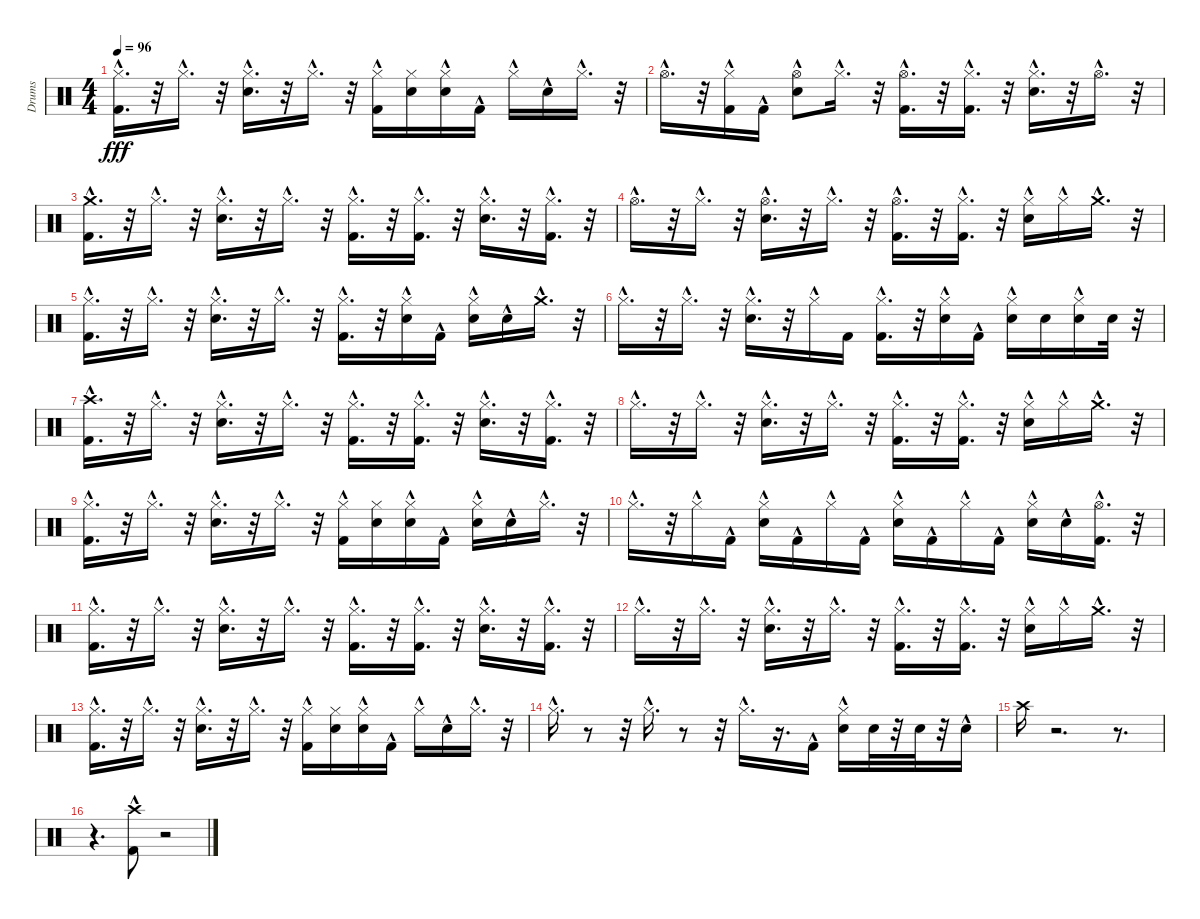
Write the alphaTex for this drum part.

\track ("Drums" "Drums") {instrument percussion}
\staff {score}
\articulation defaults
\ts (4 4)
\tempo 96
\clef neutral
\ks c
("Hi-Hat (closed)"{hac} "Kick (hit) 2"{hac}).16{d dy fff} r.32 "Hi-Hat (closed)"{hac}.16{d} r.32 ("Hi-Hat (closed)"{hac} "Snare (hit) 2"{hac}).16{d} r.32 "Hi-Hat (closed)"{hac}.16{d} r.32 ("Hi-Hat (closed)" "Kick (hit) 2"{hac}).16 ("Snare (hit) 2" "Hi-Hat (closed)").16 ("Hi-Hat (closed)"{hac} "Snare (hit) 2"{hac}).16 "Kick (hit) 2"{hac}.16 "Hi-Hat (closed)"{hac}.16 "Snare (hit) 2"{hac}.16 "Hi-Hat (closed)"{hac}.16{d} r.32 |
"Hi-Hat (open)"{hac}.16{d} r.32 ("Hi-Hat (closed)"{hac} "Kick (hit) 2").16 "Kick (hit) 2"{hac}.16 ("Snare (hit) 2"{hac} "Hi-Hat (open)"{hac}).8 "Hi-Hat (closed)"{hac}.16{d} r.32 ("Kick (hit) 2"{hac} "Hi-Hat (open)"{hac}).16{d} r.32 ("Hi-Hat (closed)"{hac} "Kick (hit) 2"{hac}).16{d} r.32 ("Hi-Hat (closed)"{hac} "Snare (hit) 2"{hac}).16{d} r.32 "Hi-Hat (open)"{hac}.16{d} r.32 |
("Kick (hit) 2"{hac} "Crash medium (hit)"{hac}).16{d} r.32 "Hi-Hat (closed)"{hac}.16{d} r.32 ("Hi-Hat (closed)"{hac} "Snare (hit) 2"{hac}).16{d} r.32 "Hi-Hat (closed)"{hac}.16{d} r.32 ("Hi-Hat (closed)"{hac} "Kick (hit) 2"{hac}).16{d} r.32 ("Hi-Hat (closed)"{hac} "Kick (hit) 2"{hac}).16{d} r.32 ("Hi-Hat (closed)"{hac} "Snare (hit) 2"{hac}).16{d} r.32 ("Hi-Hat (closed)"{hac} "Kick (hit) 2"{hac}).16{d} r.32 |
"Hi-Hat (open)"{hac}.16{d} r.32 "Hi-Hat (closed)"{hac}.16{d} r.32 ("Snare (hit) 2"{hac} "Hi-Hat (open)"{hac}).16{d} r.32 "Hi-Hat (closed)"{hac}.16{d} r.32 ("Kick (hit) 2"{hac} "Hi-Hat (open)"{hac}).16{d} r.32 ("Hi-Hat (closed)"{hac} "Kick (hit) 2"{hac}).16{d} r.32 ("Hi-Hat (closed)" "Snare (hit) 2"{hac}).16 "Hi-Hat (closed)"{hac}.16 "Crash medium (hit)"{hac}.16{d} r.32 |
("Hi-Hat (closed)"{hac} "Kick (hit) 2"{hac}).16{d} r.32 "Hi-Hat (closed)"{hac}.16{d} r.32 ("Hi-Hat (closed)"{hac} "Snare (hit) 2"{hac}).16{d} r.32 "Hi-Hat (closed)"{hac}.16{d} r.32 ("Hi-Hat (closed)"{hac} "Kick (hit) 2"{hac}).16{d} r.32 ("Hi-Hat (closed)"{hac} "Snare (hit) 2"{hac}).16 "Kick (hit) 2"{hac}.16 ("Hi-Hat (closed)"{hac} "Snare (hit) 2").16 "Snare (hit) 2"{hac}.16 "Crash medium (hit)"{hac}.16{d} r.32 |
"Hi-Hat (closed)"{hac}.16{d} r.32 "Hi-Hat (closed)"{hac}.16{d} r.32 ("Hi-Hat (closed)"{hac} "Snare (hit) 2"{hac}).16{d} r.32 "Hi-Hat (closed)"{hac}.16 "Kick (hit) 2".16 ("Hi-Hat (closed)"{hac} "Kick (hit) 2"{hac}).16{d} r.32 ("Hi-Hat (closed)"{hac} "Snare (hit) 2"{hac}).16 "Kick (hit) 2"{hac}.16 ("Hi-Hat (closed)"{hac} "Snare (hit) 2").16 "Snare (hit) 2".16 ("Hi-Hat (closed)"{hac} "Snare (hit) 2").16 "Snare (hit) 2".32 r.32 |
("Kick (hit) 2"{hac} "Crash high (hit)"{hac}).16{d} r.32 "Hi-Hat (closed)"{hac}.16{d} r.32 ("Hi-Hat (closed)"{hac} "Snare (hit) 2"{hac}).16{d} r.32 "Hi-Hat (closed)"{hac}.16{d} r.32 ("Hi-Hat (closed)"{hac} "Kick (hit) 2"{hac}).16{d} r.32 ("Hi-Hat (closed)"{hac} "Kick (hit) 2"{hac}).16{d} r.32 ("Hi-Hat (closed)"{hac} "Snare (hit) 2"{hac}).16{d} r.32 ("Hi-Hat (closed)"{hac} "Kick (hit) 2"{hac}).16{d} r.32 |
"Hi-Hat (closed)"{hac}.16{d} r.32 "Hi-Hat (closed)"{hac}.16{d} r.32 ("Hi-Hat (closed)"{hac} "Snare (hit) 2"{hac}).16{d} r.32 "Hi-Hat (closed)"{hac}.16{d} r.32 ("Hi-Hat (closed)"{hac} "Kick (hit) 2"{hac}).16{d} r.32 ("Hi-Hat (closed)"{hac} "Kick (hit) 2"{hac}).16{d} r.32 ("Hi-Hat (closed)" "Snare (hit) 2"{hac}).16 "Hi-Hat (closed)"{hac}.16 "Crash medium (hit)"{hac}.16{d} r.32 |
("Hi-Hat (closed)"{hac} "Kick (hit) 2"{hac}).16{d} r.32 "Hi-Hat (closed)"{hac}.16{d} r.32 ("Hi-Hat (closed)"{hac} "Snare (hit) 2"{hac}).16{d} r.32 "Hi-Hat (closed)"{hac}.16{d} r.32 ("Hi-Hat (closed)" "Kick (hit) 2"{hac}).16 ("Snare (hit) 2" "Hi-Hat (closed)").16 ("Hi-Hat (closed)"{hac} "Snare (hit) 2"{hac}).16 "Kick (hit) 2"{hac}.16 ("Hi-Hat (closed)"{hac} "Snare (hit) 2").16 "Snare (hit) 2"{hac}.16 "Hi-Hat (closed)"{hac}.16{d} r.32 |
"Hi-Hat (closed)"{hac}.16{d} r.32 "Hi-Hat (closed)"{hac}.16 "Kick (hit) 2"{hac}.16 ("Hi-Hat (closed)" "Snare (hit) 2"{hac}).16 "Kick (hit) 2"{hac}.16 "Hi-Hat (closed)"{hac}.16 "Kick (hit) 2"{hac}.16 ("Hi-Hat (closed)"{hac} "Snare (hit) 2"{hac}).16 "Kick (hit) 2"{hac}.16 "Hi-Hat (closed)"{hac}.16 "Kick (hit) 2"{hac}.16 ("Hi-Hat (closed)"{hac} "Snare (hit) 2").16 "Snare (hit) 2"{hac}.16 ("Hi-Hat (open)"{hac} "Kick (hit) 2"{hac}).16{d} r.32 |
("Hi-Hat (closed)"{hac} "Kick (hit) 2"{hac}).16{d} r.32 "Hi-Hat (closed)"{hac}.16{d} r.32 ("Hi-Hat (closed)"{hac} "Snare (hit) 2"{hac}).16{d} r.32 "Hi-Hat (closed)"{hac}.16{d} r.32 ("Hi-Hat (closed)"{hac} "Kick (hit) 2"{hac}).16{d} r.32 ("Hi-Hat (closed)"{hac} "Kick (hit) 2"{hac}).16{d} r.32 ("Hi-Hat (closed)"{hac} "Snare (hit) 2"{hac}).16{d} r.32 ("Hi-Hat (closed)"{hac} "Kick (hit) 2"{hac}).16{d} r.32 |
"Hi-Hat (closed)"{hac}.16{d} r.32 "Hi-Hat (closed)"{hac}.16{d} r.32 ("Hi-Hat (closed)"{hac} "Snare (hit) 2"{hac}).16{d} r.32 "Hi-Hat (closed)"{hac}.16{d} r.32 ("Hi-Hat (closed)"{hac} "Kick (hit) 2"{hac}).16{d} r.32 ("Hi-Hat (closed)"{hac} "Kick (hit) 2"{hac}).16{d} r.32 ("Hi-Hat (closed)" "Snare (hit) 2"{hac}).16 "Hi-Hat (closed)"{hac}.16 "Crash medium (hit)"{hac}.16{d} r.32 |
("Hi-Hat (closed)"{hac} "Kick (hit) 2"{hac}).16{d} r.32 "Hi-Hat (closed)"{hac}.16{d} r.32 ("Hi-Hat (closed)"{hac} "Snare (hit) 2"{hac}).16{d} r.32 "Hi-Hat (closed)"{hac}.16{d} r.32 ("Hi-Hat (closed)" "Kick (hit) 2"{hac}).16 ("Snare (hit) 2" "Hi-Hat (closed)").16 ("Hi-Hat (closed)"{hac} "Snare (hit) 2"{hac}).16 "Kick (hit) 2"{hac}.16 "Hi-Hat (closed)"{hac}.16 "Snare (hit) 2"{hac}.16 "Hi-Hat (closed)"{hac}.16{d} r.32 |
"Hi-Hat (closed)"{hac}.16{d} r.8 r.32 "Hi-Hat (closed)"{hac}.16{d} r.8 r.32 "Hi-Hat (closed)"{hac}.16{d} r.16{d} "Kick (hit) 2"{hac}.16 ("Hi-Hat (closed)"{hac} "Snare (hit) 2").16 "Snare (hit) 2".32 r.32 "Snare (hit) 2".32 r.32 "Snare (hit) 2"{hac}.16 |
"Crash high (hit)".16 r.2{d} r.8{d} |
r.4{d} ("Crash high (hit)" "Kick (hit) 2"{hac}).8 r.2
